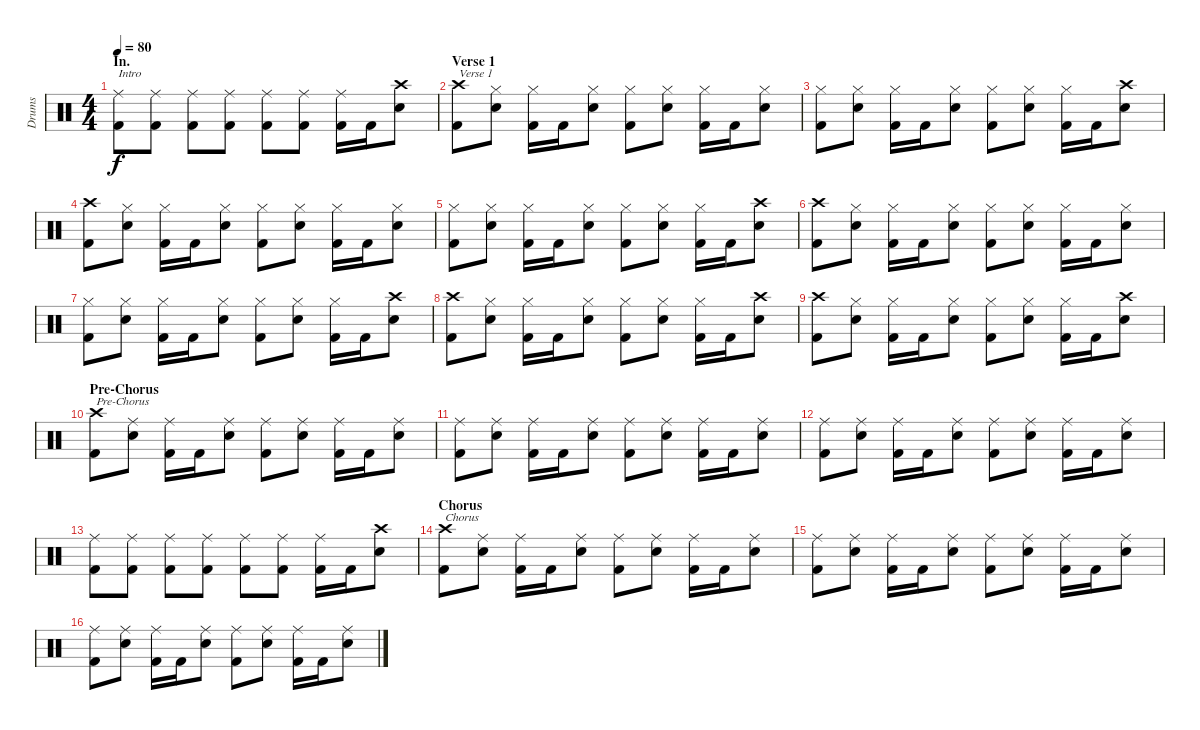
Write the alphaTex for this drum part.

\track ("Drums" "Drums") {instrument percussion}
\staff {score}
\articulation defaults
\ts (4 4)
\section ("" "In.")
\tempo 80
\clef neutral
\ks c
("Ride (middle)" "Kick (hit) 2").8{txt "Intro" dy f} ("Ride (middle)" "Kick (hit) 2").8 ("Ride (middle)" "Kick (hit) 2").8 ("Ride (middle)" "Kick (hit) 2").8 ("Ride (middle)" "Kick (hit) 2").8 ("Ride (middle)" "Kick (hit) 2").8 ("Ride (middle)" "Kick (hit) 2").16 "Kick (hit) 2".16 ("Crash high (hit)" "Electric Snare (hit)").8 |
\section ("" "Verse 1")
("Crash high (hit)" "Kick (hit) 2").8{txt "Verse 1"} ("Hi-Hat (closed)" "Electric Snare (hit)").8 ("Hi-Hat (closed)" "Kick (hit) 2").16 "Kick (hit) 2".16 ("Hi-Hat (closed)" "Electric Snare (hit)").8 ("Hi-Hat (closed)" "Kick (hit) 2").8 ("Hi-Hat (closed)" "Electric Snare (hit)").8 ("Hi-Hat (closed)" "Kick (hit) 2").16 "Kick (hit) 2".16 ("Hi-Hat (closed)" "Electric Snare (hit)").8 |
("Hi-Hat (closed)" "Kick (hit) 2").8 ("Hi-Hat (closed)" "Electric Snare (hit)").8 ("Hi-Hat (closed)" "Kick (hit) 2").16 "Kick (hit) 2".16 ("Hi-Hat (closed)" "Electric Snare (hit)").8 ("Hi-Hat (closed)" "Kick (hit) 2").8 ("Hi-Hat (closed)" "Electric Snare (hit)").8 ("Hi-Hat (closed)" "Kick (hit) 2").16 "Kick (hit) 2".16 ("Crash high (hit)" "Electric Snare (hit)").8 |
("Crash high (hit)" "Kick (hit) 2").8 ("Hi-Hat (closed)" "Electric Snare (hit)").8 ("Hi-Hat (closed)" "Kick (hit) 2").16 "Kick (hit) 2".16 ("Hi-Hat (closed)" "Electric Snare (hit)").8 ("Hi-Hat (closed)" "Kick (hit) 2").8 ("Hi-Hat (closed)" "Electric Snare (hit)").8 ("Hi-Hat (closed)" "Kick (hit) 2").16 "Kick (hit) 2".16 ("Hi-Hat (closed)" "Electric Snare (hit)").8 |
("Hi-Hat (closed)" "Kick (hit) 2").8 ("Hi-Hat (closed)" "Electric Snare (hit)").8 ("Hi-Hat (closed)" "Kick (hit) 2").16 "Kick (hit) 2".16 ("Hi-Hat (closed)" "Electric Snare (hit)").8 ("Hi-Hat (closed)" "Kick (hit) 2").8 ("Hi-Hat (closed)" "Electric Snare (hit)").8 ("Hi-Hat (closed)" "Kick (hit) 2").16 "Kick (hit) 2".16 ("Crash high (hit)" "Electric Snare (hit)").8 |
("Crash high (hit)" "Kick (hit) 2").8 ("Hi-Hat (closed)" "Electric Snare (hit)").8 ("Hi-Hat (closed)" "Kick (hit) 2").16 "Kick (hit) 2".16 ("Hi-Hat (closed)" "Electric Snare (hit)").8 ("Hi-Hat (closed)" "Kick (hit) 2").8 ("Hi-Hat (closed)" "Electric Snare (hit)").8 ("Hi-Hat (closed)" "Kick (hit) 2").16 "Kick (hit) 2".16 ("Hi-Hat (closed)" "Electric Snare (hit)").8 |
("Hi-Hat (closed)" "Kick (hit) 2").8 ("Hi-Hat (closed)" "Electric Snare (hit)").8 ("Hi-Hat (closed)" "Kick (hit) 2").16 "Kick (hit) 2".16 ("Hi-Hat (closed)" "Electric Snare (hit)").8 ("Hi-Hat (closed)" "Kick (hit) 2").8 ("Hi-Hat (closed)" "Electric Snare (hit)").8 ("Hi-Hat (closed)" "Kick (hit) 2").16 "Kick (hit) 2".16 ("Crash high (hit)" "Electric Snare (hit)").8 |
("Crash high (hit)" "Kick (hit) 2").8 ("Hi-Hat (closed)" "Electric Snare (hit)").8 ("Hi-Hat (closed)" "Kick (hit) 2").16 "Kick (hit) 2".16 ("Hi-Hat (closed)" "Electric Snare (hit)").8 ("Hi-Hat (closed)" "Kick (hit) 2").8 ("Hi-Hat (closed)" "Electric Snare (hit)").8 ("Hi-Hat (closed)" "Kick (hit) 2").16 "Kick (hit) 2".16 ("Crash high (hit)" "Electric Snare (hit)").8 |
("Crash high (hit)" "Kick (hit) 2").8 ("Hi-Hat (closed)" "Electric Snare (hit)").8 ("Hi-Hat (closed)" "Kick (hit) 2").16 "Kick (hit) 2".16 ("Hi-Hat (closed)" "Electric Snare (hit)").8 ("Hi-Hat (closed)" "Kick (hit) 2").8 ("Hi-Hat (closed)" "Electric Snare (hit)").8 ("Hi-Hat (closed)" "Kick (hit) 2").16 "Kick (hit) 2".16 ("Crash high (hit)" "Electric Snare (hit)").8 |
\section ("" "Pre-Chorus")
("Crash high (hit)" "Kick (hit) 2").8{txt "Pre-Chorus"} ("Ride (middle)" "Electric Snare (hit)").8 ("Ride (middle)" "Kick (hit) 2").16 "Kick (hit) 2".16 ("Ride (middle)" "Electric Snare (hit)").8 ("Ride (middle)" "Kick (hit) 2").8 ("Ride (middle)" "Electric Snare (hit)").8 ("Ride (middle)" "Kick (hit) 2").16 "Kick (hit) 2".16 ("Ride (middle)" "Electric Snare (hit)").8 |
("Ride (middle)" "Kick (hit) 2").8 ("Ride (middle)" "Electric Snare (hit)").8 ("Ride (middle)" "Kick (hit) 2").16 "Kick (hit) 2".16 ("Ride (middle)" "Electric Snare (hit)").8 ("Ride (middle)" "Kick (hit) 2").8 ("Ride (middle)" "Electric Snare (hit)").8 ("Ride (middle)" "Kick (hit) 2").16 "Kick (hit) 2".16 ("Ride (middle)" "Electric Snare (hit)").8 |
("Ride (middle)" "Kick (hit) 2").8 ("Ride (middle)" "Electric Snare (hit)").8 ("Ride (middle)" "Kick (hit) 2").16 "Kick (hit) 2".16 ("Ride (middle)" "Electric Snare (hit)").8 ("Ride (middle)" "Kick (hit) 2").8 ("Ride (middle)" "Electric Snare (hit)").8 ("Ride (middle)" "Kick (hit) 2").16 "Kick (hit) 2".16 ("Ride (middle)" "Electric Snare (hit)").8 |
("Ride (middle)" "Kick (hit) 2").8 ("Ride (middle)" "Kick (hit) 2").8 ("Ride (middle)" "Kick (hit) 2").8 ("Ride (middle)" "Kick (hit) 2").8 ("Ride (middle)" "Kick (hit) 2").8 ("Ride (middle)" "Kick (hit) 2").8 ("Ride (middle)" "Kick (hit) 2").16 "Kick (hit) 2".16 ("Crash high (hit)" "Electric Snare (hit)").8 |
\section ("" "Chorus")
("Crash high (hit)" "Kick (hit) 2").8{txt "Chorus"} ("Ride (middle)" "Electric Snare (hit)").8 ("Ride (middle)" "Kick (hit) 2").16 "Kick (hit) 2".16 ("Ride (middle)" "Electric Snare (hit)").8 ("Ride (middle)" "Kick (hit) 2").8 ("Ride (middle)" "Electric Snare (hit)").8 ("Ride (middle)" "Kick (hit) 2").16 "Kick (hit) 2".16 ("Ride (middle)" "Electric Snare (hit)").8 |
("Ride (middle)" "Kick (hit) 2").8 ("Ride (middle)" "Electric Snare (hit)").8 ("Ride (middle)" "Kick (hit) 2").16 "Kick (hit) 2".16 ("Ride (middle)" "Electric Snare (hit)").8 ("Ride (middle)" "Kick (hit) 2").8 ("Ride (middle)" "Electric Snare (hit)").8 ("Ride (middle)" "Kick (hit) 2").16 "Kick (hit) 2".16 ("Ride (middle)" "Electric Snare (hit)").8 |
("Ride (middle)" "Kick (hit) 2").8 ("Ride (middle)" "Electric Snare (hit)").8 ("Ride (middle)" "Kick (hit) 2").16 "Kick (hit) 2".16 ("Ride (middle)" "Electric Snare (hit)").8 ("Ride (middle)" "Kick (hit) 2").8 ("Ride (middle)" "Electric Snare (hit)").8 ("Ride (middle)" "Kick (hit) 2").16 "Kick (hit) 2".16 ("Ride (middle)" "Electric Snare (hit)").8
